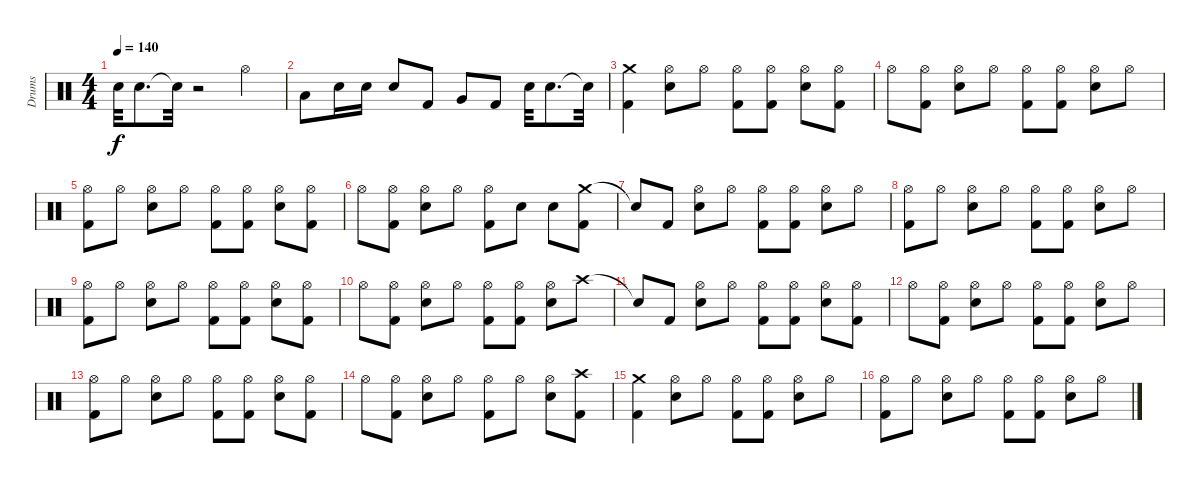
\track ("Drums" "Drums") {instrument percussion}
\staff {score}
\articulation defaults
\ts (4 4)
\tempo 140
\clef neutral
\ks c "Snare (hit) 2".32{dy f} "Snare (hit) 2".8{d} "Snare (hit)"{t}.32
r.2 "Hi-Hat (open)".4 |
"Low Tom (hit)".8 "Snare (hit) 2".16 "Snare (hit) 2".16 "Snare (hit) 2".8 "Kick (hit) 2".8 "Very Low Tom (hit)".8 "Kick (hit) 2".8 "Snare (hit) 2".32 "Snare (hit) 2".8{d} "Snare (hit)"{t}.32 |
("Crash medium (hit)" "Kick (hit) 2").4 ("Hi-Hat (open)" "Snare (hit) 2").8 "Hi-Hat (open)".8 ("Hi-Hat (open)" "Kick (hit) 2").8 ("Hi-Hat (open)" "Kick (hit) 2").8 ("Hi-Hat (open)" "Snare (hit) 2").8 ("Kick (hit) 2" "Hi-Hat (open)").8 |
"Hi-Hat (open)".8 ("Hi-Hat (open)" "Kick (hit) 2").8 ("Hi-Hat (open)" "Snare (hit) 2").8 "Hi-Hat (open)".8 ("Hi-Hat (open)" "Kick (hit) 2").8 ("Hi-Hat (open)" "Kick (hit) 2").8 ("Hi-Hat (open)" "Snare (hit) 2").8 "Hi-Hat (open)".8 |
("Hi-Hat (open)" "Kick (hit) 2").8 "Hi-Hat (open)".8 ("Hi-Hat (open)" "Snare (hit) 2").8 "Hi-Hat (open)".8 ("Hi-Hat (open)" "Kick (hit) 2").8 ("Hi-Hat (open)" "Kick (hit) 2").8 ("Hi-Hat (open)" "Snare (hit) 2").8 ("Hi-Hat (open)" "Kick (hit) 2").8 |
"Hi-Hat (open)".8 ("Hi-Hat (open)" "Kick (hit) 2").8 ("Hi-Hat (open)" "Snare (hit) 2").8 "Hi-Hat (open)".8 ("Hi-Hat (open)" "Kick (hit) 2").8 "Snare (hit) 2".8 "Snare (hit) 2".8 ("Crash medium (hit)" "Kick (hit) 2").8 |
"Snare (hit)"{t}.8 "Kick (hit) 2".8 ("Hi-Hat (open)" "Snare (hit) 2").8 "Hi-Hat (open)".8 ("Hi-Hat (open)" "Kick (hit) 2").8 ("Hi-Hat (open)" "Kick (hit) 2").8 ("Hi-Hat (open)" "Snare (hit) 2").8 "Hi-Hat (open)".8 |
("Kick (hit) 2" "Hi-Hat (open)").8 "Hi-Hat (open)".8 ("Hi-Hat (open)" "Snare (hit) 2").8 "Hi-Hat (open)".8 ("Hi-Hat (open)" "Kick (hit) 2").8 ("Kick (hit) 2" "Hi-Hat (open)").8 ("Snare (hit) 2" "Hi-Hat (open)").8 "Hi-Hat (open)".8 |
("Hi-Hat (open)" "Kick (hit) 2").8 "Hi-Hat (open)".8 ("Hi-Hat (open)" "Snare (hit) 2").8 "Hi-Hat (open)".8 ("Hi-Hat (open)" "Kick (hit) 2").8 ("Hi-Hat (open)" "Kick (hit) 2").8 ("Hi-Hat (open)" "Snare (hit) 2").8 ("Hi-Hat (open)" "Kick (hit) 2").8 |
"Hi-Hat (open)".8 ("Hi-Hat (open)" "Kick (hit) 2").8 ("Hi-Hat (open)" "Snare (hit) 2").8 "Hi-Hat (open)".8 ("Hi-Hat (open)" "Kick (hit) 2").8 ("Kick (hit) 2" "Hi-Hat (open)").8 ("Hi-Hat (open)" "Snare (hit) 2").8 "Crash high (hit)".8 |
"Snare (hit)"{t}.8 "Kick (hit) 2".8 ("Hi-Hat (open)" "Snare (hit) 2").8 "Hi-Hat (open)".8 ("Hi-Hat (open)" "Kick (hit) 2").8 ("Hi-Hat (open)" "Kick (hit) 2").8 ("Hi-Hat (open)" "Snare (hit) 2").8 ("Hi-Hat (open)" "Kick (hit) 2").8 |
"Hi-Hat (open)".8 ("Hi-Hat (open)" "Kick (hit) 2").8 ("Hi-Hat (open)" "Snare (hit) 2").8 "Hi-Hat (open)".8 ("Hi-Hat (open)" "Kick (hit) 2").8 ("Hi-Hat (open)" "Kick (hit) 2").8 ("Hi-Hat (open)" "Snare (hit) 2").8 "Hi-Hat (open)".8 |
("Hi-Hat (open)" "Kick (hit) 2").8 "Hi-Hat (open)".8 ("Snare (hit) 2" "Hi-Hat (open)").8 "Hi-Hat (open)".8 ("Hi-Hat (open)" "Kick (hit) 2").8 ("Hi-Hat (open)" "Kick (hit) 2").8 ("Snare (hit) 2" "Hi-Hat (open)").8 ("Hi-Hat (open)" "Kick (hit) 2").8 |
"Hi-Hat (open)".8 ("Kick (hit) 2" "Hi-Hat (open)").8 ("Snare (hit) 2" "Hi-Hat (open)").8 "Hi-Hat (open)".8 ("Kick (hit) 2" "Hi-Hat (open)").8 "Hi-Hat (open)".8 ("Snare (hit) 2" "Hi-Hat (open)").8 ("Crash high (hit)" "Kick (hit) 2").8 |
("Crash medium (hit)" "Kick (hit) 2").4 ("Snare (hit) 2" "Hi-Hat (open)").8 "Hi-Hat (open)".8 ("Kick (hit) 2" "Hi-Hat (open)").8 ("Kick (hit) 2" "Hi-Hat (open)").8 ("Snare (hit) 2" "Hi-Hat (open)").8 "Hi-Hat (open)".8 |
("Hi-Hat (open)" "Kick (hit) 2").8 "Hi-Hat (open)".8 ("Hi-Hat (open)" "Snare (hit) 2").8 "Hi-Hat (open)".8 ("Hi-Hat (open)" "Kick (hit) 2").8 ("Hi-Hat (open)" "Kick (hit) 2").8 ("Hi-Hat (open)" "Snare (hit) 2").8 "Hi-Hat (open)".8
